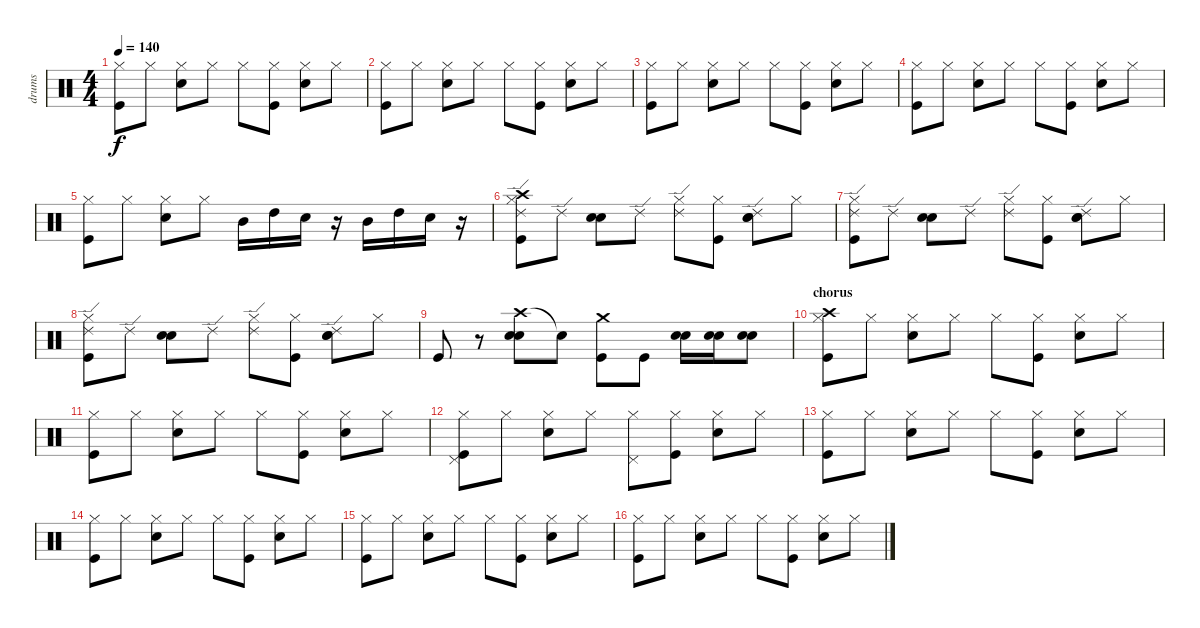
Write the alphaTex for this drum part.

\track ("drums" "drums") {instrument percussion}
\staff {score}
\articulation defaults
\ts (4 4)
\tempo 140
\clef neutral
\ks c
("Hi-Hat (closed)" "Kick (hit)").8{dy f} "Hi-Hat (closed)".8 ("Hi-Hat (closed)" "Snare (hit) 2").8 "Hi-Hat (closed)".8 "Hi-Hat (closed)".8 ("Hi-Hat (closed)" "Kick (hit)").8 ("Hi-Hat (closed)" "Snare (hit) 2").8 "Hi-Hat (closed)".8 |
("Hi-Hat (closed)" "Kick (hit)").8 "Hi-Hat (closed)".8 ("Hi-Hat (closed)" "Snare (hit) 2").8 "Hi-Hat (closed)".8 "Hi-Hat (closed)".8 ("Hi-Hat (closed)" "Kick (hit)").8 ("Hi-Hat (closed)" "Snare (hit) 2").8 "Hi-Hat (closed)".8 |
("Hi-Hat (closed)" "Kick (hit)").8 "Hi-Hat (closed)".8 ("Hi-Hat (closed)" "Snare (hit) 2").8 "Hi-Hat (closed)".8 "Hi-Hat (closed)".8 ("Hi-Hat (closed)" "Kick (hit)").8 ("Hi-Hat (closed)" "Snare (hit) 2").8 "Hi-Hat (closed)".8 |
("Hi-Hat (closed)" "Kick (hit)").8 "Hi-Hat (closed)".8 ("Hi-Hat (closed)" "Snare (hit) 2").8 "Hi-Hat (closed)".8 "Hi-Hat (closed)".8 ("Hi-Hat (closed)" "Kick (hit)").8 ("Hi-Hat (closed)" "Snare (hit) 2").8 "Hi-Hat (closed)".8 |
("Hi-Hat (closed)" "Kick (hit)").8 "Hi-Hat (closed)".8 ("Hi-Hat (closed)" "Snare (hit) 2").8 "Hi-Hat (closed)".8 "Mid Tom (hit)".16 "High Tom (hit)".16 "Snare (hit) 2".16 r.16 "Mid Tom (hit)".16 "High Tom (hit)".16 "Snare (hit) 2".16 r.16 |
("Crash high (hit)" "Ride (edge) 2" "Hi-Hat (closed)" "Kick (hit)").8 "Ride (edge) 2".8 ("Snare (hit) 2" "Electric Snare (hit)").8 "Ride (edge) 2".8 ("Ride (edge) 2" "Hi-Hat (closed)").8 ("Hi-Hat (closed)" "Kick (hit)").8 ("Ride (edge) 2" "Snare (hit) 2" "Electric Snare (hit)").8 "Hi-Hat (closed)".8 |
("Ride (edge) 2" "Hi-Hat (closed)" "Kick (hit)").8 "Ride (edge) 2".8 ("Snare (hit) 2" "Electric Snare (hit)").8 "Ride (edge) 2".8 ("Ride (edge) 2" "Hi-Hat (closed)").8 ("Hi-Hat (closed)" "Kick (hit)").8 ("Ride (edge) 2" "Snare (hit) 2" "Electric Snare (hit)").8 "Hi-Hat (closed)".8 |
("Ride (edge) 2" "Hi-Hat (closed)" "Kick (hit)").8 "Ride (edge) 2".8 ("Snare (hit) 2" "Electric Snare (hit)").8 "Ride (edge) 2".8 ("Ride (edge) 2" "Hi-Hat (closed)").8 ("Hi-Hat (closed)" "Kick (hit)").8 ("Ride (edge) 2" "Snare (hit) 2" "Electric Snare (hit)").8 "Hi-Hat (closed)".8 |
"Kick (hit)".8 r.8 ("Crash high (hit)" "Snare (hit) 2" "Electric Snare (hit)").8 "Snare (hit)"{t}.8 ("Crash medium (hit)" "Kick (hit)").8 "Kick (hit)".8 ("Snare (hit) 2" "Electric Snare (hit)").16 ("Snare (hit) 2" "Electric Snare (hit)").16 ("Snare (hit) 2" "Electric Snare (hit)").8 |
\section ("" "chorus")
("Crash high (hit)" "Hi-Hat (closed)" "Kick (hit)").8 "Hi-Hat (closed)".8 ("Hi-Hat (closed)" "Snare (hit) 2").8 "Hi-Hat (closed)".8 "Hi-Hat (closed)".8 ("Hi-Hat (closed)" "Kick (hit)").8 ("Hi-Hat (closed)" "Snare (hit) 2").8 "Hi-Hat (closed)".8 |
("Hi-Hat (closed)" "Kick (hit)").8 "Hi-Hat (closed)".8 ("Hi-Hat (closed)" "Snare (hit) 2").8 "Hi-Hat (closed)".8 "Hi-Hat (closed)".8 ("Hi-Hat (closed)" "Kick (hit)").8 ("Hi-Hat (closed)" "Snare (hit) 2").8 "Hi-Hat (closed)".8 |
("Pedal Hi-Hat (hit)" "Hi-Hat (closed)" "Kick (hit)").8 "Hi-Hat (closed)".8 ("Hi-Hat (closed)" "Snare (hit) 2").8 "Hi-Hat (closed)".8 ("Pedal Hi-Hat (hit)" "Hi-Hat (closed)").8 ("Hi-Hat (closed)" "Kick (hit)").8 ("Hi-Hat (closed)" "Snare (hit) 2").8 "Hi-Hat (closed)".8 |
("Hi-Hat (closed)" "Kick (hit)").8 "Hi-Hat (closed)".8 ("Hi-Hat (closed)" "Snare (hit) 2").8 "Hi-Hat (closed)".8 "Hi-Hat (closed)".8 ("Hi-Hat (closed)" "Kick (hit)").8 ("Hi-Hat (closed)" "Snare (hit) 2").8 "Hi-Hat (closed)".8 |
("Hi-Hat (closed)" "Kick (hit)").8 "Hi-Hat (closed)".8 ("Hi-Hat (closed)" "Snare (hit) 2").8 "Hi-Hat (closed)".8 "Hi-Hat (closed)".8 ("Hi-Hat (closed)" "Kick (hit)").8 ("Hi-Hat (closed)" "Snare (hit) 2").8 "Hi-Hat (closed)".8 |
("Hi-Hat (closed)" "Kick (hit)").8 "Hi-Hat (closed)".8 ("Hi-Hat (closed)" "Snare (hit) 2").8 "Hi-Hat (closed)".8 "Hi-Hat (closed)".8 ("Hi-Hat (closed)" "Kick (hit)").8 ("Hi-Hat (closed)" "Snare (hit) 2").8 "Hi-Hat (closed)".8 |
("Hi-Hat (closed)" "Kick (hit)").8 "Hi-Hat (closed)".8 ("Hi-Hat (closed)" "Snare (hit) 2").8 "Hi-Hat (closed)".8 "Hi-Hat (closed)".8 ("Hi-Hat (closed)" "Kick (hit)").8 ("Hi-Hat (closed)" "Snare (hit) 2").8 "Hi-Hat (closed)".8
